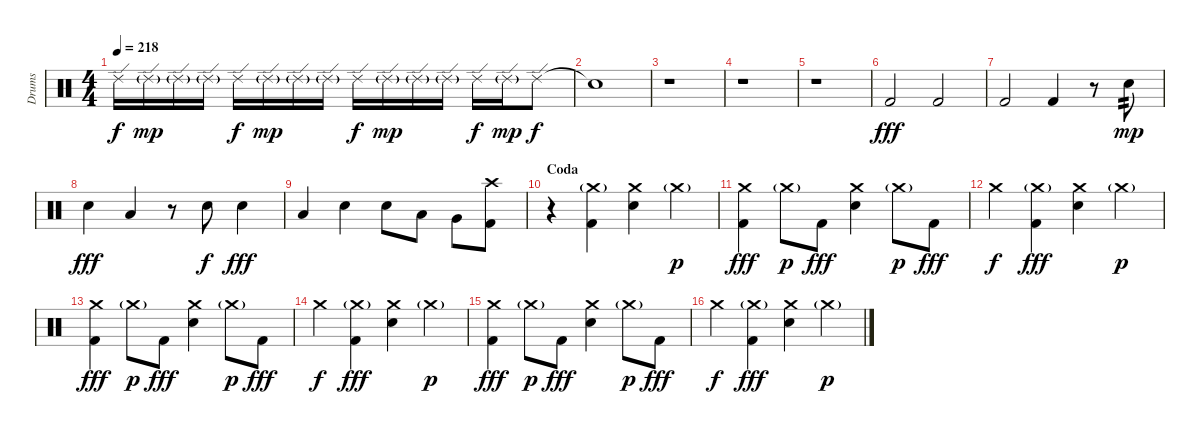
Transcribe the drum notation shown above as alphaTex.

\track ("Drums" "Drums") {instrument percussion}
\staff {score}
\articulation defaults
\ts (4 4)
\tempo 218
\clef neutral
\ks c "Ride (edge) 2".16{dy f} "Ride (edge) 2"{g}.16{dy mp} "Ride (edge) 2"{g}.16 "Ride (edge) 2"{g}.16 "Ride (edge) 2".16{dy f} "Ride (edge) 2"{g}.16{dy mp} "Ride (edge) 2"{g}.16 "Ride (edge) 2"{g}.16 "Ride (edge) 2".16{dy f} "Ride (edge) 2"{g}.16{dy mp} "Ride (edge) 2"{g}.16 "Ride (edge) 2"{g}.16 "Ride (edge) 2".16{dy f} "Ride (edge) 2"{g}.16{dy mp} "Ride (edge) 2".8{dy f}
|
"Snare (hit)"{t}.1 |
r.1 |
r.1 |
r.1 |
"Kick (hit) 2".2{dy fff} "Kick (hit) 2".2 |
"Kick (hit) 2".2 "Kick (hit) 2".4 r.8 "Electric Snare (hit)".8{tp 2 dy mp} |
"Electric Snare (hit)".4{dy fff} "Low Tom (hit)".4 r.8 "Electric Snare (hit)".8{dy f} "Electric Snare (hit)".4{dy fff} |
"Low Tom (hit)".4 "Electric Snare (hit)".4 "Electric Snare (hit)".8 "Low Tom (hit)".8 "Very Low Tom (hit)".8 ("Crash high (hit)" "Kick (hit) 2").8 |
\section ("" "Coda")
r.4 ("Crash medium (hit)"{g} "Kick (hit) 2").4 ("Crash medium (hit)" "Electric Snare (hit)").4 "Crash medium (hit)"{g}.4{dy p} |
("Crash medium (hit)" "Kick (hit) 2").4{dy fff} "Crash medium (hit)"{g}.8{dy p} "Kick (hit) 2".8{dy fff} ("Crash medium (hit)" "Electric Snare (hit)").4 "Crash medium (hit)"{g}.8{dy p} "Kick (hit) 2".8{dy fff} |
"Crash medium (hit)".4{dy f} ("Crash medium (hit)"{g} "Kick (hit) 2").4{dy fff} ("Crash medium (hit)" "Electric Snare (hit)").4 "Crash medium (hit)"{g}.4{dy p} |
("Crash medium (hit)" "Kick (hit) 2").4{dy fff} "Crash medium (hit)"{g}.8{dy p} "Kick (hit) 2".8{dy fff} ("Crash medium (hit)" "Electric Snare (hit)").4 "Crash medium (hit)"{g}.8{dy p} "Kick (hit) 2".8{dy fff} |
"Crash medium (hit)".4{dy f} ("Crash medium (hit)"{g} "Kick (hit) 2").4{dy fff} ("Crash medium (hit)" "Electric Snare (hit)").4 "Crash medium (hit)"{g}.4{dy p} |
("Crash medium (hit)" "Kick (hit) 2").4{dy fff} "Crash medium (hit)"{g}.8{dy p} "Kick (hit) 2".8{dy fff} ("Crash medium (hit)" "Electric Snare (hit)").4 "Crash medium (hit)"{g}.8{dy p} "Kick (hit) 2".8{dy fff} |
"Crash medium (hit)".4{dy f} ("Crash medium (hit)"{g} "Kick (hit) 2").4{dy fff} ("Crash medium (hit)" "Electric Snare (hit)").4 "Crash medium (hit)"{g}.4{dy p}
